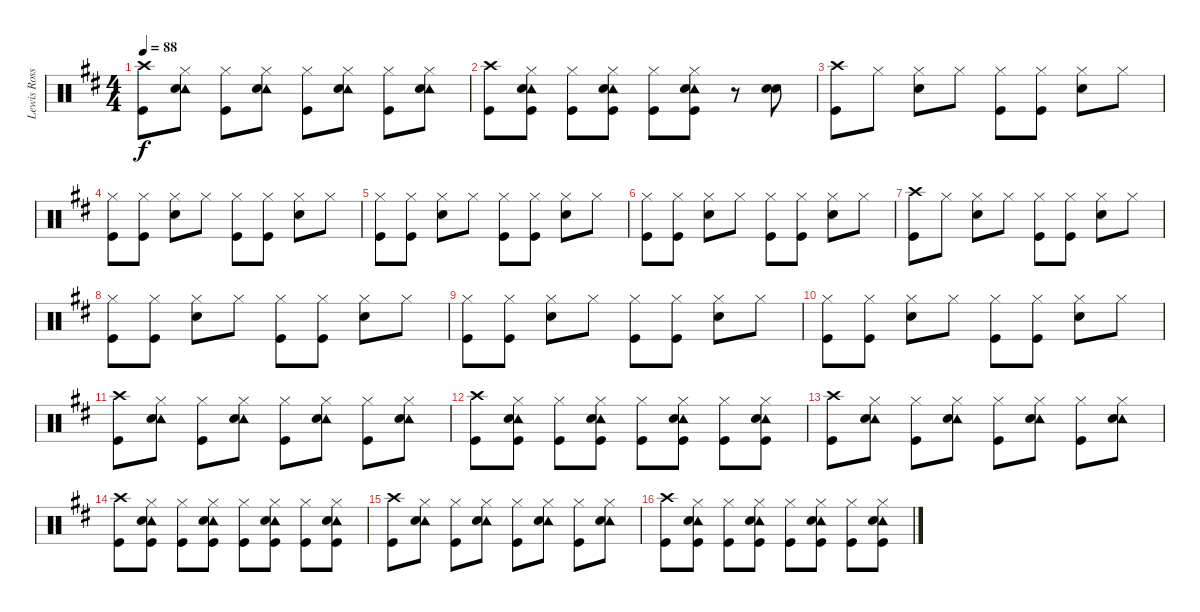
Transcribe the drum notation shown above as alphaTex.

\track ("Lewis Ross Drums" "Lewis Ross") {instrument percussion}
\staff {score}
\articulation defaults
\ts (4 4)
\tempo 88
\clef neutral
\ks d
("Crash high (hit)" "Kick (hit)").8{dy f} ("Hi-Hat (closed)" "Tambourine (hit)" "Snare (hit) 2").8 ("Hi-Hat (closed)" "Kick (hit)").8 ("Hi-Hat (closed)" "Tambourine (hit)" "Snare (hit) 2").8 ("Hi-Hat (closed)" "Kick (hit)").8 ("Hi-Hat (closed)" "Tambourine (hit)" "Snare (hit) 2").8 ("Hi-Hat (closed)" "Kick (hit)").8 ("Hi-Hat (closed)" "Tambourine (hit)" "Snare (hit) 2").8 |
("Crash high (hit)" "Kick (hit)").8 ("Hi-Hat (closed)" "Tambourine (hit)" "Snare (hit) 2" "Kick (hit)").8 ("Hi-Hat (closed)" "Kick (hit)").8 ("Hi-Hat (closed)" "Tambourine (hit)" "Snare (hit) 2" "Kick (hit)").8 ("Hi-Hat (closed)" "Kick (hit)").8 ("Hi-Hat (closed)" "Tambourine (hit)" "Snare (hit) 2" "Kick (hit)").8 r.8 ("Snare (hit) 2" "Snare (hit) 2").8 |
("Crash high (hit)" "Kick (hit)").8 "Hi-Hat (closed)".8 ("Hi-Hat (closed)" "Snare (hit) 2").8 "Hi-Hat (closed)".8 ("Hi-Hat (closed)" "Kick (hit)").8 ("Hi-Hat (closed)" "Kick (hit)").8 ("Hi-Hat (closed)" "Snare (hit) 2").8 "Hi-Hat (closed)".8 |
("Hi-Hat (closed)" "Kick (hit)").8 ("Hi-Hat (closed)" "Kick (hit)").8 ("Hi-Hat (closed)" "Snare (hit) 2").8 "Hi-Hat (closed)".8 ("Hi-Hat (closed)" "Kick (hit)").8 ("Hi-Hat (closed)" "Kick (hit)").8 ("Hi-Hat (closed)" "Snare (hit) 2").8 "Hi-Hat (closed)".8 |
("Hi-Hat (closed)" "Kick (hit)").8 ("Hi-Hat (closed)" "Kick (hit)").8 ("Hi-Hat (closed)" "Snare (hit) 2").8 "Hi-Hat (closed)".8 ("Hi-Hat (closed)" "Kick (hit)").8 ("Hi-Hat (closed)" "Kick (hit)").8 ("Hi-Hat (closed)" "Snare (hit) 2").8 "Hi-Hat (closed)".8 |
("Hi-Hat (closed)" "Kick (hit)").8 ("Hi-Hat (closed)" "Kick (hit)").8 ("Hi-Hat (closed)" "Snare (hit) 2").8 "Hi-Hat (closed)".8 ("Hi-Hat (closed)" "Kick (hit)").8 ("Hi-Hat (closed)" "Kick (hit)").8 ("Hi-Hat (closed)" "Snare (hit) 2").8 "Hi-Hat (closed)".8 |
("Crash high (hit)" "Kick (hit)").8 "Hi-Hat (closed)".8 ("Hi-Hat (closed)" "Snare (hit) 2").8 "Hi-Hat (closed)".8 ("Hi-Hat (closed)" "Kick (hit)").8 ("Hi-Hat (closed)" "Kick (hit)").8 ("Hi-Hat (closed)" "Snare (hit) 2").8 "Hi-Hat (closed)".8 |
("Hi-Hat (closed)" "Kick (hit)").8 ("Hi-Hat (closed)" "Kick (hit)").8 ("Hi-Hat (closed)" "Snare (hit) 2").8 "Hi-Hat (closed)".8 ("Hi-Hat (closed)" "Kick (hit)").8 ("Hi-Hat (closed)" "Kick (hit)").8 ("Hi-Hat (closed)" "Snare (hit) 2").8 "Hi-Hat (closed)".8 |
("Hi-Hat (closed)" "Kick (hit)").8 ("Hi-Hat (closed)" "Kick (hit)").8 ("Hi-Hat (closed)" "Snare (hit) 2").8 "Hi-Hat (closed)".8 ("Hi-Hat (closed)" "Kick (hit)").8 ("Hi-Hat (closed)" "Kick (hit)").8 ("Hi-Hat (closed)" "Snare (hit) 2").8 "Hi-Hat (closed)".8 |
("Hi-Hat (closed)" "Kick (hit)").8 ("Hi-Hat (closed)" "Kick (hit)").8 ("Hi-Hat (closed)" "Snare (hit) 2").8 "Hi-Hat (closed)".8 ("Hi-Hat (closed)" "Kick (hit)").8 ("Hi-Hat (closed)" "Kick (hit)").8 ("Hi-Hat (closed)" "Snare (hit) 2").8 "Hi-Hat (closed)".8 |
("Crash high (hit)" "Kick (hit)").8 ("Hi-Hat (closed)" "Tambourine (hit)" "Snare (hit) 2").8 ("Hi-Hat (closed)" "Kick (hit)").8 ("Hi-Hat (closed)" "Tambourine (hit)" "Snare (hit) 2").8 ("Hi-Hat (closed)" "Kick (hit)").8 ("Hi-Hat (closed)" "Tambourine (hit)" "Snare (hit) 2").8 ("Hi-Hat (closed)" "Kick (hit)").8 ("Hi-Hat (closed)" "Tambourine (hit)" "Snare (hit) 2").8 |
("Crash high (hit)" "Kick (hit)").8 ("Hi-Hat (closed)" "Tambourine (hit)" "Snare (hit) 2" "Kick (hit)").8 ("Hi-Hat (closed)" "Kick (hit)").8 ("Hi-Hat (closed)" "Tambourine (hit)" "Snare (hit) 2" "Kick (hit)").8 ("Hi-Hat (closed)" "Kick (hit)").8 ("Hi-Hat (closed)" "Tambourine (hit)" "Snare (hit) 2" "Kick (hit)").8 ("Hi-Hat (closed)" "Kick (hit)").8 ("Hi-Hat (closed)" "Tambourine (hit)" "Snare (hit) 2" "Kick (hit)").8 |
("Crash high (hit)" "Kick (hit)").8 ("Hi-Hat (closed)" "Tambourine (hit)" "Snare (hit) 2").8 ("Hi-Hat (closed)" "Kick (hit)").8 ("Hi-Hat (closed)" "Tambourine (hit)" "Snare (hit) 2").8 ("Hi-Hat (closed)" "Kick (hit)").8 ("Hi-Hat (closed)" "Tambourine (hit)" "Snare (hit) 2").8 ("Hi-Hat (closed)" "Kick (hit)").8 ("Hi-Hat (closed)" "Tambourine (hit)" "Snare (hit) 2").8 |
("Crash high (hit)" "Kick (hit)").8 ("Hi-Hat (closed)" "Tambourine (hit)" "Snare (hit) 2" "Kick (hit)").8 ("Hi-Hat (closed)" "Kick (hit)").8 ("Hi-Hat (closed)" "Tambourine (hit)" "Snare (hit) 2" "Kick (hit)").8 ("Hi-Hat (closed)" "Kick (hit)").8 ("Hi-Hat (closed)" "Tambourine (hit)" "Snare (hit) 2" "Kick (hit)").8 ("Hi-Hat (closed)" "Kick (hit)").8 ("Hi-Hat (closed)" "Tambourine (hit)" "Snare (hit) 2" "Kick (hit)").8 |
("Crash high (hit)" "Kick (hit)").8 ("Hi-Hat (closed)" "Tambourine (hit)" "Snare (hit) 2").8 ("Hi-Hat (closed)" "Kick (hit)").8 ("Hi-Hat (closed)" "Tambourine (hit)" "Snare (hit) 2").8 ("Hi-Hat (closed)" "Kick (hit)").8 ("Hi-Hat (closed)" "Tambourine (hit)" "Snare (hit) 2").8 ("Hi-Hat (closed)" "Kick (hit)").8 ("Hi-Hat (closed)" "Tambourine (hit)" "Snare (hit) 2").8 |
("Crash high (hit)" "Kick (hit)").8 ("Hi-Hat (closed)" "Tambourine (hit)" "Snare (hit) 2" "Kick (hit)").8 ("Hi-Hat (closed)" "Kick (hit)").8 ("Hi-Hat (closed)" "Tambourine (hit)" "Snare (hit) 2" "Kick (hit)").8 ("Hi-Hat (closed)" "Kick (hit)").8 ("Hi-Hat (closed)" "Tambourine (hit)" "Snare (hit) 2" "Kick (hit)").8 ("Hi-Hat (closed)" "Kick (hit)").8 ("Hi-Hat (closed)" "Tambourine (hit)" "Snare (hit) 2" "Kick (hit)").8
